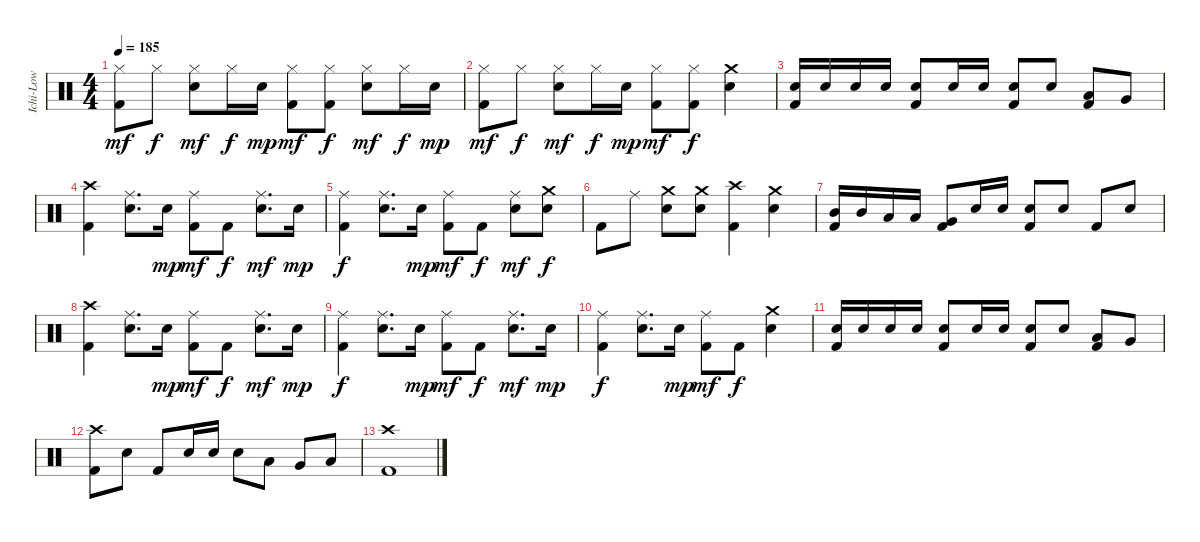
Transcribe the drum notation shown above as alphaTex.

\track ("Ichi-Low" "Ichi-Low") {instrument percussion}
\staff {score}
\articulation defaults
\ts (4 4)
\tempo 185
\clef neutral
\ks c
("Hi-Hat (closed)" "Kick (hit) 2").8{dy mf} "Hi-Hat (closed)".8{dy f} ("Hi-Hat (closed)" "Electric Snare (hit)").8{dy mf} "Hi-Hat (closed)".16{dy f} "Electric Snare (hit)".16{dy mp} ("Hi-Hat (closed)" "Kick (hit) 2").8{dy mf} ("Hi-Hat (closed)" "Kick (hit) 2").8{dy f} ("Hi-Hat (closed)" "Electric Snare (hit)").8{dy mf} "Hi-Hat (closed)".16{dy f} "Electric Snare (hit)".16{dy mp} |
("Hi-Hat (closed)" "Kick (hit) 2").8{dy mf} "Hi-Hat (closed)".8{dy f} ("Hi-Hat (closed)" "Electric Snare (hit)").8{dy mf} "Hi-Hat (closed)".16{dy f} "Electric Snare (hit)".16{dy mp} ("Hi-Hat (closed)" "Kick (hit) 2").8{dy mf} ("Hi-Hat (closed)" "Kick (hit) 2").8{dy f} ("Crash medium (hit)" "Electric Snare (hit)").4 |
("Electric Snare (hit)" "Kick (hit) 2").16 "Electric Snare (hit)".16 "Electric Snare (hit)".16 "Electric Snare (hit)".16 ("Electric Snare (hit)" "Kick (hit) 2").8 "Electric Snare (hit)".16 "Electric Snare (hit)".16 ("Electric Snare (hit)" "Kick (hit) 2").8 "Electric Snare (hit)".8 ("Low Tom (hit)" "Kick (hit) 2").8 "Very Low Tom (hit)".8 |
("Crash high (hit)" "Kick (hit) 2").4 ("Ride (middle)" "Electric Snare (hit)").8{d} "Electric Snare (hit)".16{dy mp} ("Ride (middle)" "Kick (hit) 2").8{dy mf} "Kick (hit) 2".8{dy f} ("Ride (middle)" "Electric Snare (hit)").8{d dy mf} "Electric Snare (hit)".16{dy mp} |
("Ride (middle)" "Kick (hit) 2").4{dy f} ("Ride (middle)" "Electric Snare (hit)").8{d} "Electric Snare (hit)".16{dy mp} ("Ride (middle)" "Kick (hit) 2").8{dy mf} "Kick (hit) 2".8{dy f} ("Ride (middle)" "Electric Snare (hit)").8{dy mf} ("Crash medium (hit)" "Electric Snare (hit)").8{dy f} |
"Kick (hit) 2".8 "Ride (middle)".8 ("Crash medium (hit)" "Electric Snare (hit)").8 ("Crash medium (hit)" "Electric Snare (hit)").8 ("Crash high (hit)" "Kick (hit) 2").4 ("Crash medium (hit)" "Electric Snare (hit)").4 |
("Mid Tom (hit)" "Kick (hit) 2").16 "Mid Tom (hit)".16 "Low Tom (hit)".16 "Low Tom (hit)".16 ("Very Low Tom (hit)" "Kick (hit) 2").8 "Electric Snare (hit)".16 "Electric Snare (hit)".16 ("Electric Snare (hit)" "Kick (hit) 2").8 "Electric Snare (hit)".8 "Kick (hit) 2".8 "Electric Snare (hit)".8 |
("Crash high (hit)" "Kick (hit) 2").4 ("Ride (middle)" "Electric Snare (hit)").8{d} "Electric Snare (hit)".16{dy mp} ("Ride (middle)" "Kick (hit) 2").8{dy mf} "Kick (hit) 2".8{dy f} ("Ride (middle)" "Electric Snare (hit)").8{d dy mf} "Electric Snare (hit)".16{dy mp} |
("Ride (middle)" "Kick (hit) 2").4{dy f} ("Ride (middle)" "Electric Snare (hit)").8{d} "Electric Snare (hit)".16{dy mp} ("Ride (middle)" "Kick (hit) 2").8{dy mf} "Kick (hit) 2".8{dy f} ("Ride (middle)" "Electric Snare (hit)").8{d dy mf} "Electric Snare (hit)".16{dy mp} |
("Ride (middle)" "Kick (hit) 2").4{dy f} ("Ride (middle)" "Electric Snare (hit)").8{d} "Electric Snare (hit)".16{dy mp} ("Ride (middle)" "Kick (hit) 2").8{dy mf} "Kick (hit) 2".8{dy f} ("Crash medium (hit)" "Electric Snare (hit)").4 |
("Electric Snare (hit)" "Kick (hit) 2").16 "Electric Snare (hit)".16 "Electric Snare (hit)".16 "Electric Snare (hit)".16 ("Electric Snare (hit)" "Kick (hit) 2").8 "Electric Snare (hit)".16 "Electric Snare (hit)".16 ("Electric Snare (hit)" "Kick (hit) 2").8 "Electric Snare (hit)".8 ("Low Tom (hit)" "Kick (hit) 2").8 "Very Low Tom (hit)".8 |
("Crash high (hit)" "Kick (hit) 2").8 "Electric Snare (hit)".8 "Kick (hit) 2".8 "Electric Snare (hit)".16 "Electric Snare (hit)".16 "Electric Snare (hit)".8 "Low Tom (hit)".8 "Very Low Tom (hit)".8 "Low Floor Tom (hit)".8 |
("Crash high (hit)" "Kick (hit) 2").1
